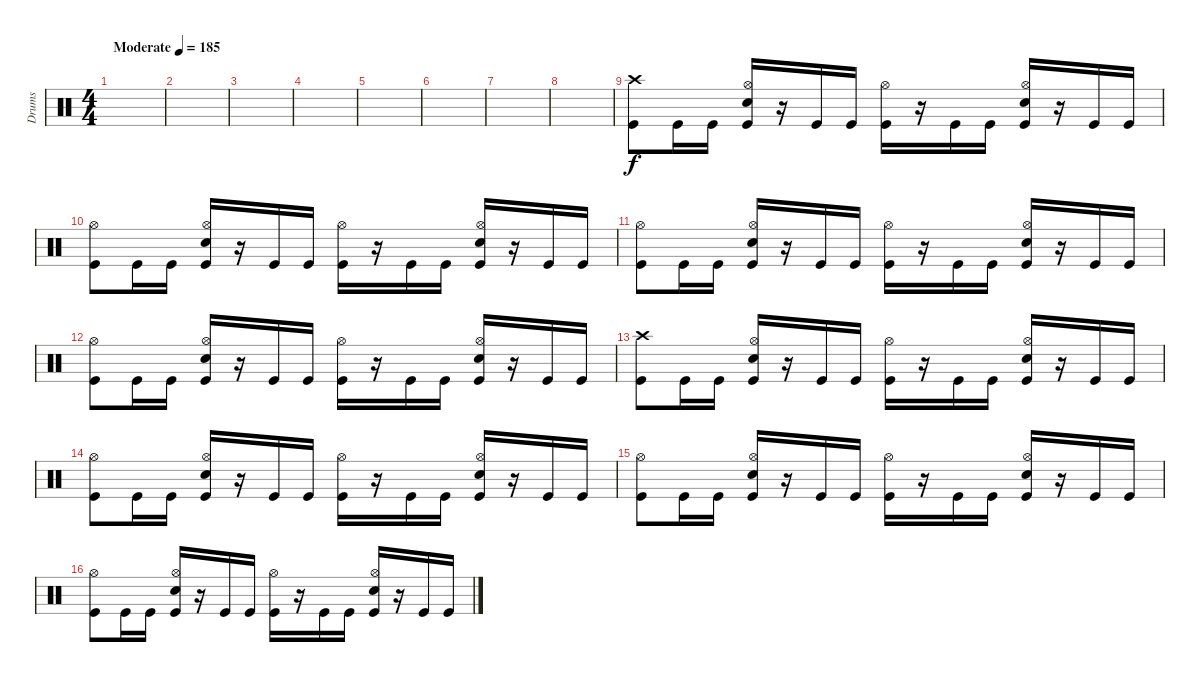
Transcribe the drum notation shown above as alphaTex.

\track ("Drums" "Drums") {instrument percussion}
\staff {score}
\articulation defaults
\ts (4 4)
\tempo (185 "Moderate")
\clef neutral
\ks c
|
|
|
|
|
|
|
|
("Crash high (hit)" "Kick (hit)").8 "Kick (hit)".16 "Kick (hit)".16 ("Hi-Hat (open)" "Snare (hit) 2" "Kick (hit)").16 r.16 "Kick (hit)".16 "Kick (hit)".16 ("Hi-Hat (open)" "Kick (hit)").16 r.16 "Kick (hit)".16 "Kick (hit)".16 ("Hi-Hat (open)" "Snare (hit) 2" "Kick (hit)").16 r.16 "Kick (hit)".16 "Kick (hit)".16 |
("Hi-Hat (open)" "Kick (hit)").8 "Kick (hit)".16 "Kick (hit)".16 ("Hi-Hat (open)" "Snare (hit) 2" "Kick (hit)").16 r.16 "Kick (hit)".16 "Kick (hit)".16 ("Hi-Hat (open)" "Kick (hit)").16 r.16 "Kick (hit)".16 "Kick (hit)".16 ("Hi-Hat (open)" "Snare (hit) 2" "Kick (hit)").16 r.16 "Kick (hit)".16 "Kick (hit)".16 |
("Hi-Hat (open)" "Kick (hit)").8 "Kick (hit)".16 "Kick (hit)".16 ("Hi-Hat (open)" "Snare (hit) 2" "Kick (hit)").16 r.16 "Kick (hit)".16 "Kick (hit)".16 ("Hi-Hat (open)" "Kick (hit)").16 r.16 "Kick (hit)".16 "Kick (hit)".16 ("Hi-Hat (open)" "Snare (hit) 2" "Kick (hit)").16 r.16 "Kick (hit)".16 "Kick (hit)".16 |
("Hi-Hat (open)" "Kick (hit)").8 "Kick (hit)".16 "Kick (hit)".16 ("Hi-Hat (open)" "Snare (hit) 2" "Kick (hit)").16 r.16 "Kick (hit)".16 "Kick (hit)".16 ("Hi-Hat (open)" "Kick (hit)").16 r.16 "Kick (hit)".16 "Kick (hit)".16 ("Hi-Hat (open)" "Snare (hit) 2" "Kick (hit)").16 r.16 "Kick (hit)".16 "Kick (hit)".16 |
("Crash high (hit)" "Kick (hit)").8 "Kick (hit)".16 "Kick (hit)".16 ("Hi-Hat (open)" "Snare (hit) 2" "Kick (hit)").16 r.16 "Kick (hit)".16 "Kick (hit)".16 ("Hi-Hat (open)" "Kick (hit)").16 r.16 "Kick (hit)".16 "Kick (hit)".16 ("Hi-Hat (open)" "Snare (hit) 2" "Kick (hit)").16 r.16 "Kick (hit)".16 "Kick (hit)".16 |
("Hi-Hat (open)" "Kick (hit)").8 "Kick (hit)".16 "Kick (hit)".16 ("Hi-Hat (open)" "Snare (hit) 2" "Kick (hit)").16 r.16 "Kick (hit)".16 "Kick (hit)".16 ("Hi-Hat (open)" "Kick (hit)").16 r.16 "Kick (hit)".16 "Kick (hit)".16 ("Hi-Hat (open)" "Snare (hit) 2" "Kick (hit)").16 r.16 "Kick (hit)".16 "Kick (hit)".16 |
("Hi-Hat (open)" "Kick (hit)").8 "Kick (hit)".16 "Kick (hit)".16 ("Hi-Hat (open)" "Snare (hit) 2" "Kick (hit)").16 r.16 "Kick (hit)".16 "Kick (hit)".16 ("Hi-Hat (open)" "Kick (hit)").16 r.16 "Kick (hit)".16 "Kick (hit)".16 ("Hi-Hat (open)" "Snare (hit) 2" "Kick (hit)").16 r.16 "Kick (hit)".16 "Kick (hit)".16 |
("Hi-Hat (open)" "Kick (hit)").8 "Kick (hit)".16 "Kick (hit)".16 ("Hi-Hat (open)" "Snare (hit) 2" "Kick (hit)").16 r.16 "Kick (hit)".16 "Kick (hit)".16 ("Hi-Hat (open)" "Kick (hit)").16 r.16 "Kick (hit)".16 "Kick (hit)".16 ("Hi-Hat (open)" "Snare (hit) 2" "Kick (hit)").16 r.16 "Kick (hit)".16 "Kick (hit)".16
